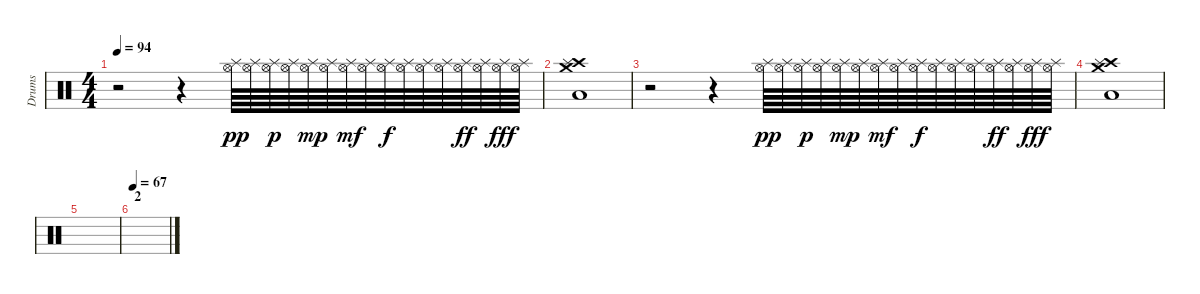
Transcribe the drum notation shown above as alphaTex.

\track ("Drums" "Drums") {instrument percussion}
\staff {score}
\articulation defaults
\ts (4 4)
\tempo 94
\clef neutral
\ks c
r.2{dy fff} r.4 ("Splash (hit)" "Hi-Hat (open)").64{dy pp} ("Splash (hit)" "Hi-Hat (open)").64 ("Splash (hit)" "Hi-Hat (open)").64{dy p} ("Splash (hit)" "Hi-Hat (open)").64 ("Splash (hit)" "Hi-Hat (open)").64{dy mp} ("Splash (hit)" "Hi-Hat (open)").64 ("Splash (hit)" "Hi-Hat (open)").64{dy mf} ("Splash (hit)" "Hi-Hat (open)").64 ("Splash (hit)" "Hi-Hat (open)").64{dy f} ("Splash (hit)" "Hi-Hat (open)").64 ("Splash (hit)" "Hi-Hat (open)").64 ("Splash (hit)" "Hi-Hat (open)").64 ("Splash (hit)" "Hi-Hat (open)").64{dy ff} ("Splash (hit)" "Hi-Hat (open)").64 ("Splash (hit)" "Hi-Hat (open)").64{dy fff} ("Splash (hit)" "Hi-Hat (open)").64 |
("Crash high (hit)" "Low Tom (hit)" "Splash (hit)" "Crash medium (hit)").1 |
r.2 r.4 ("Splash (hit)" "Hi-Hat (open)").64{dy pp} ("Splash (hit)" "Hi-Hat (open)").64 ("Splash (hit)" "Hi-Hat (open)").64{dy p} ("Splash (hit)" "Hi-Hat (open)").64 ("Splash (hit)" "Hi-Hat (open)").64{dy mp} ("Splash (hit)" "Hi-Hat (open)").64 ("Splash (hit)" "Hi-Hat (open)").64{dy mf} ("Splash (hit)" "Hi-Hat (open)").64 ("Splash (hit)" "Hi-Hat (open)").64{dy f} ("Splash (hit)" "Hi-Hat (open)").64 ("Splash (hit)" "Hi-Hat (open)").64 ("Splash (hit)" "Hi-Hat (open)").64 ("Splash (hit)" "Hi-Hat (open)").64{dy ff} ("Splash (hit)" "Hi-Hat (open)").64 ("Splash (hit)" "Hi-Hat (open)").64{dy fff} ("Splash (hit)" "Hi-Hat (open)").64 |
("Crash high (hit)" "Low Tom (hit)" "Splash (hit)" "Crash medium (hit)").1 |
|
\section ("" "2")
\tempo 67
